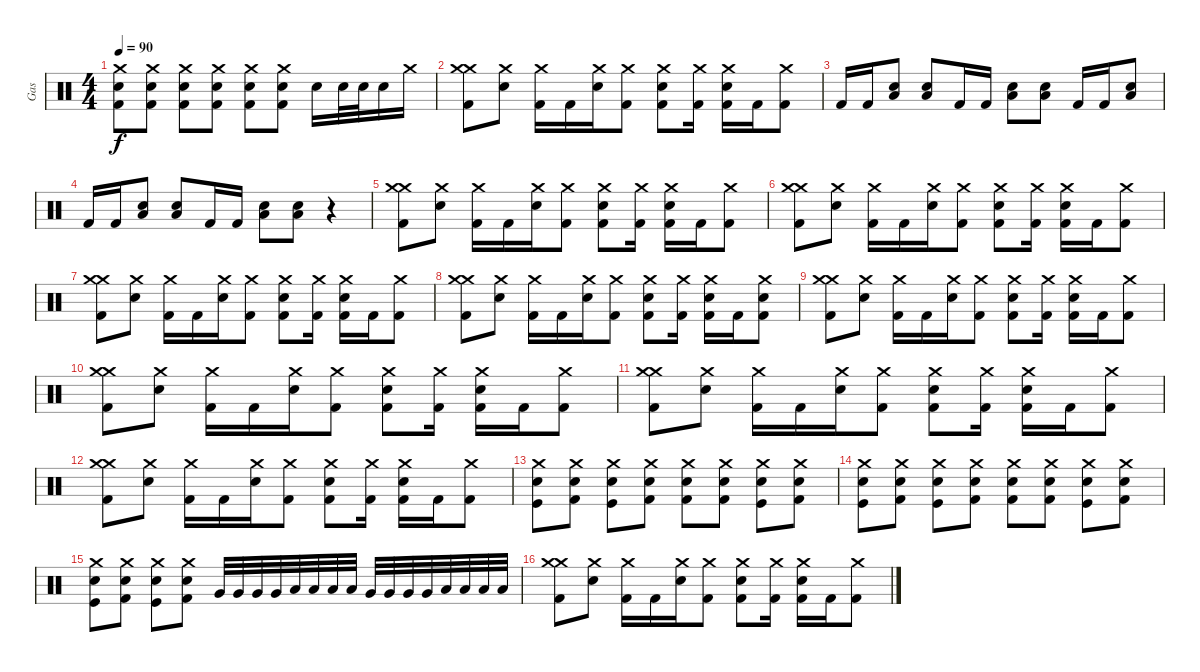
\track ("Gas" "Gas") {instrument percussion}
\staff {score}
\articulation defaults
\ts (4 4)
\tempo 90
\clef neutral
\ks c
("Crash medium (hit)" "Snare (hit) 2" "Kick (hit) 2").8{dy f} ("Crash medium (hit)" "Snare (hit) 2" "Kick (hit) 2").8 ("Crash medium (hit)" "Snare (hit) 2" "Kick (hit) 2").8 ("Crash medium (hit)" "Snare (hit) 2" "Kick (hit) 2").8 ("Crash medium (hit)" "Snare (hit) 2" "Kick (hit) 2").8 ("Crash medium (hit)" "Snare (hit) 2" "Kick (hit) 2").8 "Snare (hit) 2".16 "Snare (hit) 2".32 "Snare (hit) 2".32 "Snare (hit) 2".16 "Crash medium (hit)".16 |
("Crash medium (hit)" "Crash medium (hit)" "Kick (hit) 2").8 ("Snare (hit) 2" "Crash medium (hit)").8 ("Crash medium (hit)" "Kick (hit) 2").16 "Kick (hit) 2".16 ("Snare (hit) 2" "Crash medium (hit)").16 ("Crash medium (hit)" "Kick (hit) 2").8 ("Snare (hit) 2" "Crash medium (hit)" "Kick (hit) 2").8 ("Crash medium (hit)" "Kick (hit) 2").16 ("Snare (hit) 2" "Crash medium (hit)" "Kick (hit) 2").16 "Kick (hit) 2".16 ("Crash medium (hit)" "Kick (hit) 2").8 |
"Kick (hit) 2".16 "Kick (hit) 2".16 ("Snare (hit) 2" "Low Floor Tom (hit)").8 ("Snare (hit) 2" "Low Floor Tom (hit)").8 "Kick (hit) 2".16 "Kick (hit) 2".16 ("Snare (hit) 2" "Low Floor Tom (hit)").8 ("Snare (hit) 2" "Low Floor Tom (hit)").8 "Kick (hit) 2".16 "Kick (hit) 2".16 ("Snare (hit) 2" "Low Floor Tom (hit)").8 |
"Kick (hit) 2".16 "Kick (hit) 2".16 ("Snare (hit) 2" "Low Floor Tom (hit)").8 ("Snare (hit) 2" "Low Floor Tom (hit)").8 "Kick (hit) 2".16 "Kick (hit) 2".16 ("Snare (hit) 2" "Low Floor Tom (hit)").8 ("Snare (hit) 2" "Low Floor Tom (hit)").8 r.4 |
("Crash medium (hit)" "Crash medium (hit)" "Kick (hit) 2").8 ("Snare (hit) 2" "Crash medium (hit)").8 ("Crash medium (hit)" "Kick (hit) 2").16 "Kick (hit) 2".16 ("Snare (hit) 2" "Crash medium (hit)").16 ("Crash medium (hit)" "Kick (hit) 2").8 ("Snare (hit) 2" "Crash medium (hit)" "Kick (hit) 2").8 ("Crash medium (hit)" "Kick (hit) 2").16 ("Snare (hit) 2" "Crash medium (hit)" "Kick (hit) 2").16 "Kick (hit) 2".16 ("Crash medium (hit)" "Kick (hit) 2").8 |
("Crash medium (hit)" "Crash medium (hit)" "Kick (hit) 2").8 ("Snare (hit) 2" "Crash medium (hit)").8 ("Crash medium (hit)" "Kick (hit) 2").16 "Kick (hit) 2".16 ("Snare (hit) 2" "Crash medium (hit)").16 ("Crash medium (hit)" "Kick (hit) 2").8 ("Snare (hit) 2" "Crash medium (hit)" "Kick (hit) 2").8 ("Crash medium (hit)" "Kick (hit) 2").16 ("Snare (hit) 2" "Crash medium (hit)" "Kick (hit) 2").16 "Kick (hit) 2".16 ("Crash medium (hit)" "Kick (hit) 2").8 |
("Crash medium (hit)" "Crash medium (hit)" "Kick (hit) 2").8 ("Snare (hit) 2" "Crash medium (hit)").8 ("Crash medium (hit)" "Kick (hit) 2").16 "Kick (hit) 2".16 ("Snare (hit) 2" "Crash medium (hit)").16 ("Crash medium (hit)" "Kick (hit) 2").8 ("Snare (hit) 2" "Crash medium (hit)" "Kick (hit) 2").8 ("Crash medium (hit)" "Kick (hit) 2").16 ("Snare (hit) 2" "Crash medium (hit)" "Kick (hit) 2").16 "Kick (hit) 2".16 ("Crash medium (hit)" "Kick (hit) 2").8 |
("Crash medium (hit)" "Crash medium (hit)" "Kick (hit) 2").8 ("Snare (hit) 2" "Crash medium (hit)").8 ("Crash medium (hit)" "Kick (hit) 2").16 "Kick (hit) 2".16 ("Snare (hit) 2" "Crash medium (hit)").16 ("Crash medium (hit)" "Kick (hit) 2").8 ("Snare (hit) 2" "Crash medium (hit)" "Kick (hit) 2").8 ("Crash medium (hit)" "Kick (hit) 2").16 ("Snare (hit) 2" "Crash medium (hit)" "Kick (hit) 2").16 "Kick (hit) 2".16 ("Snare (hit) 2" "Crash medium (hit)" "Kick (hit) 2").8 |
("Crash medium (hit)" "Crash medium (hit)" "Kick (hit) 2").8 ("Snare (hit) 2" "Crash medium (hit)").8 ("Crash medium (hit)" "Kick (hit) 2").16 "Kick (hit) 2".16 ("Snare (hit) 2" "Crash medium (hit)").16 ("Crash medium (hit)" "Kick (hit) 2").8 ("Snare (hit) 2" "Crash medium (hit)" "Kick (hit) 2").8 ("Crash medium (hit)" "Kick (hit) 2").16 ("Snare (hit) 2" "Crash medium (hit)" "Kick (hit) 2").16 "Kick (hit) 2".16 ("Crash medium (hit)" "Kick (hit) 2").8 |
("Crash medium (hit)" "Crash medium (hit)" "Kick (hit) 2").8 ("Snare (hit) 2" "Crash medium (hit)").8 ("Crash medium (hit)" "Kick (hit) 2").16 "Kick (hit) 2".16 ("Snare (hit) 2" "Crash medium (hit)").16 ("Crash medium (hit)" "Kick (hit) 2").8 ("Snare (hit) 2" "Crash medium (hit)" "Kick (hit) 2").8 ("Crash medium (hit)" "Kick (hit) 2").16 ("Snare (hit) 2" "Crash medium (hit)" "Kick (hit) 2").16 "Kick (hit) 2".16 ("Crash medium (hit)" "Kick (hit) 2").8 |
("Crash medium (hit)" "Crash medium (hit)" "Kick (hit) 2").8 ("Snare (hit) 2" "Crash medium (hit)").8 ("Crash medium (hit)" "Kick (hit) 2").16 "Kick (hit) 2".16 ("Snare (hit) 2" "Crash medium (hit)").16 ("Crash medium (hit)" "Kick (hit) 2").8 ("Snare (hit) 2" "Crash medium (hit)" "Kick (hit) 2").8 ("Crash medium (hit)" "Kick (hit) 2").16 ("Snare (hit) 2" "Crash medium (hit)" "Kick (hit) 2").16 "Kick (hit) 2".16 ("Crash medium (hit)" "Kick (hit) 2").8 |
("Crash medium (hit)" "Crash medium (hit)" "Kick (hit) 2").8 ("Snare (hit) 2" "Crash medium (hit)").8 ("Crash medium (hit)" "Kick (hit) 2").16 "Kick (hit) 2".16 ("Snare (hit) 2" "Crash medium (hit)").16 ("Crash medium (hit)" "Kick (hit) 2").8 ("Snare (hit) 2" "Crash medium (hit)" "Kick (hit) 2").8 ("Crash medium (hit)" "Kick (hit) 2").16 ("Snare (hit) 2" "Crash medium (hit)" "Kick (hit) 2").16 "Kick (hit) 2".16 ("Crash medium (hit)" "Kick (hit) 2").8 |
("Crash medium (hit)" "Snare (hit) 2" "Kick (hit)").8 ("Crash medium (hit)" "Snare (hit) 2" "Kick (hit) 2").8 ("Crash medium (hit)" "Snare (hit) 2" "Kick (hit)").8 ("Crash medium (hit)" "Snare (hit) 2" "Kick (hit) 2").8 ("Crash medium (hit)" "Snare (hit) 2" "Kick (hit) 2").8 ("Crash medium (hit)" "Snare (hit) 2" "Kick (hit) 2").8 ("Crash medium (hit)" "Snare (hit) 2" "Kick (hit)").8 ("Crash medium (hit)" "Snare (hit) 2" "Kick (hit) 2").8 |
("Crash medium (hit)" "Snare (hit) 2" "Kick (hit)").8 ("Crash medium (hit)" "Snare (hit) 2" "Kick (hit) 2").8 ("Crash medium (hit)" "Snare (hit) 2" "Kick (hit)").8 ("Crash medium (hit)" "Snare (hit) 2" "Kick (hit) 2").8 ("Crash medium (hit)" "Snare (hit) 2" "Kick (hit) 2").8 ("Crash medium (hit)" "Snare (hit) 2" "Kick (hit) 2").8 ("Crash medium (hit)" "Snare (hit) 2" "Kick (hit)").8 ("Crash medium (hit)" "Snare (hit) 2" "Kick (hit) 2").8 |
("Crash medium (hit)" "Snare (hit) 2" "Kick (hit)").8 ("Crash medium (hit)" "Snare (hit) 2" "Kick (hit) 2").8 ("Crash medium (hit)" "Snare (hit) 2" "Kick (hit)").8 ("Crash medium (hit)" "Snare (hit) 2" "Kick (hit) 2").8 "Very Low Tom (hit)".32 "Very Low Tom (hit)".32 "Very Low Tom (hit)".32 "Very Low Tom (hit)".32 "Low Floor Tom (hit)".32 "Low Floor Tom (hit)".32 "Low Floor Tom (hit)".32 "Low Floor Tom (hit)".32 "Very Low Tom (hit)".32 "Very Low Tom (hit)".32 "Very Low Tom (hit)".32 "Very Low Tom (hit)".32 "Low Floor Tom (hit)".32 "Low Floor Tom (hit)".32 "Low Floor Tom (hit)".32 "Low Floor Tom (hit)".32 |
("Crash medium (hit)" "Crash medium (hit)" "Kick (hit) 2").8 ("Snare (hit) 2" "Crash medium (hit)").8 ("Crash medium (hit)" "Kick (hit) 2").16 "Kick (hit) 2".16 ("Snare (hit) 2" "Crash medium (hit)").16 ("Crash medium (hit)" "Kick (hit) 2").8 ("Snare (hit) 2" "Crash medium (hit)" "Kick (hit) 2").8 ("Crash medium (hit)" "Kick (hit) 2").16 ("Snare (hit) 2" "Crash medium (hit)" "Kick (hit) 2").16 "Kick (hit) 2".16 ("Crash medium (hit)" "Kick (hit) 2").8
